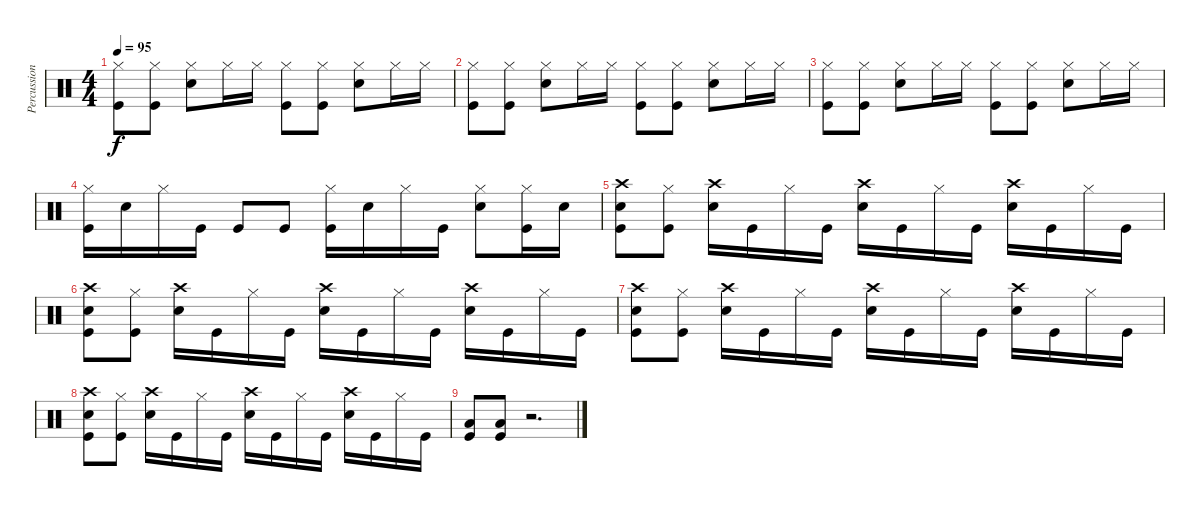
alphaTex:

\track ("Percussion" "Percussion") {instrument percussion}
\staff {score}
\articulation defaults
\ts (4 4)
\tempo 95
\clef neutral
\ks c
("Hi-Hat (closed)" "Kick (hit)").8{dy f} ("Hi-Hat (closed)" "Kick (hit)").8 ("Hi-Hat (closed)" "Snare (hit) 2").8 "Hi-Hat (closed)".16 "Hi-Hat (closed)".16 ("Hi-Hat (closed)" "Kick (hit)").8 ("Hi-Hat (closed)" "Kick (hit)").8 ("Hi-Hat (closed)" "Snare (hit) 2").8 "Hi-Hat (closed)".16 "Hi-Hat (closed)".16 |
("Hi-Hat (closed)" "Kick (hit)").8 ("Hi-Hat (closed)" "Kick (hit)").8 ("Hi-Hat (closed)" "Snare (hit) 2").8 "Hi-Hat (closed)".16 "Hi-Hat (closed)".16 ("Hi-Hat (closed)" "Kick (hit)").8 ("Hi-Hat (closed)" "Kick (hit)").8 ("Hi-Hat (closed)" "Snare (hit) 2").8 "Hi-Hat (closed)".16 "Hi-Hat (closed)".16 |
("Hi-Hat (closed)" "Kick (hit)").8 ("Hi-Hat (closed)" "Kick (hit)").8 ("Hi-Hat (closed)" "Snare (hit) 2").8 "Hi-Hat (closed)".16 "Hi-Hat (closed)".16 ("Hi-Hat (closed)" "Kick (hit)").8 ("Hi-Hat (closed)" "Kick (hit)").8 ("Hi-Hat (closed)" "Snare (hit) 2").8 "Hi-Hat (closed)".16 "Hi-Hat (closed)".16 |
("Hi-Hat (closed)" "Kick (hit)").16 "Snare (hit) 2".16 "Hi-Hat (closed)".16 "Kick (hit)".16 "Kick (hit)".8 "Kick (hit)".8 ("Hi-Hat (closed)" "Kick (hit)").16 "Snare (hit) 2".16 "Hi-Hat (closed)".16 "Kick (hit)".16 ("Hi-Hat (closed)" "Snare (hit) 2").8 ("Hi-Hat (closed)" "Kick (hit)").16 "Snare (hit) 2".16 |
("Crash high (hit)" "Snare (hit) 2" "Kick (hit)").8 ("Hi-Hat (closed)" "Kick (hit)").8 ("Crash high (hit)" "Snare (hit) 2").16 "Kick (hit)".16 "Hi-Hat (closed)".16 "Kick (hit)".16 ("Crash high (hit)" "Snare (hit) 2").16 "Kick (hit)".16 "Hi-Hat (closed)".16 "Kick (hit)".16 ("Crash high (hit)" "Snare (hit) 2").16 "Kick (hit)".16 "Hi-Hat (closed)".16 "Kick (hit)".16 |
("Crash high (hit)" "Snare (hit) 2" "Kick (hit)").8 ("Hi-Hat (closed)" "Kick (hit)").8 ("Crash high (hit)" "Snare (hit) 2").16 "Kick (hit)".16 "Hi-Hat (closed)".16 "Kick (hit)".16 ("Crash high (hit)" "Snare (hit) 2").16 "Kick (hit)".16 "Hi-Hat (closed)".16 "Kick (hit)".16 ("Crash high (hit)" "Snare (hit) 2").16 "Kick (hit)".16 "Hi-Hat (closed)".16 "Kick (hit)".16 |
("Crash high (hit)" "Snare (hit) 2" "Kick (hit)").8 ("Hi-Hat (closed)" "Kick (hit)").8 ("Crash high (hit)" "Snare (hit) 2").16 "Kick (hit)".16 "Hi-Hat (closed)".16 "Kick (hit)".16 ("Crash high (hit)" "Snare (hit) 2").16 "Kick (hit)".16 "Hi-Hat (closed)".16 "Kick (hit)".16 ("Crash high (hit)" "Snare (hit) 2").16 "Kick (hit)".16 "Hi-Hat (closed)".16 "Kick (hit)".16 |
("Crash high (hit)" "Snare (hit) 2" "Kick (hit)").8 ("Hi-Hat (closed)" "Kick (hit)").8 ("Crash high (hit)" "Snare (hit) 2").16 "Kick (hit)".16 "Hi-Hat (closed)".16 "Kick (hit)".16 ("Crash high (hit)" "Snare (hit) 2").16 "Kick (hit)".16 "Hi-Hat (closed)".16 "Kick (hit)".16 ("Crash high (hit)" "Snare (hit) 2").16 "Kick (hit)".16 "Hi-Hat (closed)".16 "Kick (hit)".16 |
("Low Tom (hit)" "Kick (hit)").8 ("Low Tom (hit)" "Kick (hit)").8 r.2{d}
